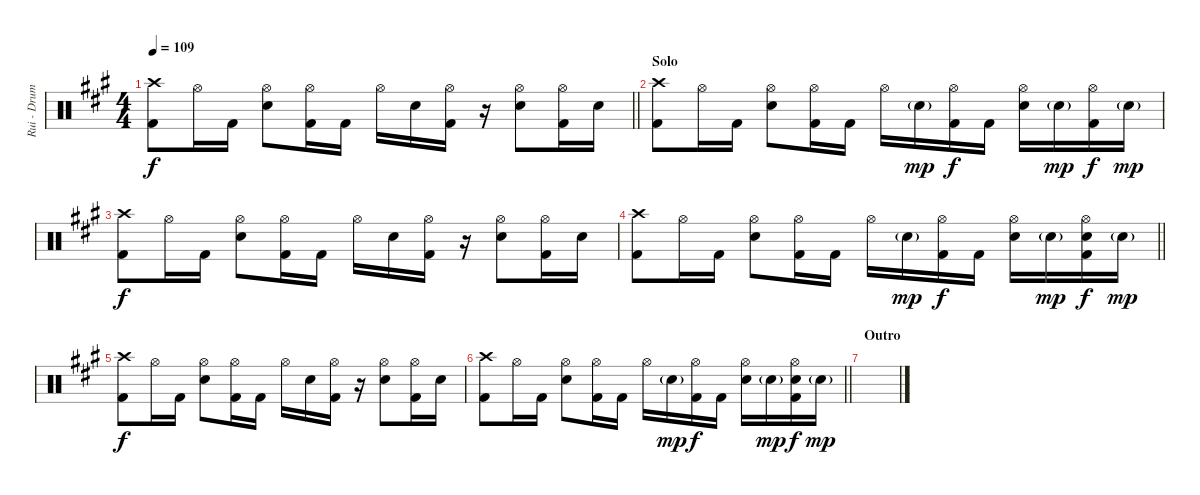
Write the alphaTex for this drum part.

\track ("Rui - Drums" "Rui - Drum") {instrument percussion}
\staff {score}
\articulation defaults
\ts (4 4)
\tempo 109
\clef neutral
\barLineRight lightlight
\ks f#minor
("Crash high (hit)" "Kick (hit) 2").8{dy f} "Hi-Hat (open)".16 "Kick (hit) 2".16 ("Hi-Hat (open)" "Electric Snare (hit)").8 ("Hi-Hat (open)" "Kick (hit) 2").16 "Kick (hit) 2".16 "Hi-Hat (open)".16 "Electric Snare (hit)".16 ("Hi-Hat (open)" "Kick (hit) 2").16 r.16 ("Hi-Hat (open)" "Electric Snare (hit)").8 ("Hi-Hat (open)" "Kick (hit) 2").16 "Electric Snare (hit)".16 |
\section ("" "Solo")
("Crash high (hit)" "Kick (hit) 2").8 "Hi-Hat (open)".16 "Kick (hit) 2".16 ("Hi-Hat (open)" "Electric Snare (hit)").8 ("Hi-Hat (open)" "Kick (hit) 2").16 "Kick (hit) 2".16 "Hi-Hat (open)".16 "Electric Snare (hit)"{g}.16{dy mp} ("Hi-Hat (open)" "Kick (hit) 2").16{dy f} "Kick (hit) 2".16 ("Hi-Hat (open)" "Electric Snare (hit)").16 "Electric Snare (hit)"{g}.16{dy mp} ("Hi-Hat (open)" "Kick (hit) 2").16{dy f} "Electric Snare (hit)"{g}.16{dy mp} |
("Crash high (hit)" "Kick (hit) 2").8{dy f} "Hi-Hat (open)".16 "Kick (hit) 2".16 ("Hi-Hat (open)" "Electric Snare (hit)").8 ("Hi-Hat (open)" "Kick (hit) 2").16 "Kick (hit) 2".16 "Hi-Hat (open)".16 "Electric Snare (hit)".16 ("Hi-Hat (open)" "Kick (hit) 2").16 r.16 ("Hi-Hat (open)" "Electric Snare (hit)").8 ("Hi-Hat (open)" "Kick (hit) 2").16 "Electric Snare (hit)".16 |
\barLineRight lightlight
("Crash high (hit)" "Kick (hit) 2").8 "Hi-Hat (open)".16 "Kick (hit) 2".16 ("Hi-Hat (open)" "Electric Snare (hit)").8 ("Hi-Hat (open)" "Kick (hit) 2").16 "Kick (hit) 2".16 "Hi-Hat (open)".16 "Electric Snare (hit)"{g}.16{dy mp} ("Hi-Hat (open)" "Kick (hit) 2").16{dy f} "Kick (hit) 2".16 ("Hi-Hat (open)" "Electric Snare (hit)").16 "Electric Snare (hit)"{g}.16{dy mp} ("Hi-Hat (open)" "Electric Snare (hit)" "Kick (hit) 2").16{dy f} "Electric Snare (hit)"{g}.16{dy mp} |
("Crash high (hit)" "Kick (hit) 2").8{dy f} "Hi-Hat (open)".16 "Kick (hit) 2".16 ("Hi-Hat (open)" "Electric Snare (hit)").8 ("Hi-Hat (open)" "Kick (hit) 2").16 "Kick (hit) 2".16 "Hi-Hat (open)".16 "Electric Snare (hit)".16 ("Hi-Hat (open)" "Kick (hit) 2").16 r.16 ("Hi-Hat (open)" "Electric Snare (hit)").8 ("Hi-Hat (open)" "Kick (hit) 2").16 "Electric Snare (hit)".16 |
\barLineRight lightlight
("Crash high (hit)" "Kick (hit) 2").8 "Hi-Hat (open)".16 "Kick (hit) 2".16 ("Hi-Hat (open)" "Electric Snare (hit)").8 ("Hi-Hat (open)" "Kick (hit) 2").16 "Kick (hit) 2".16 "Hi-Hat (open)".16 "Electric Snare (hit)"{g}.16{dy mp} ("Hi-Hat (open)" "Kick (hit) 2").16{dy f} "Kick (hit) 2".16 ("Hi-Hat (open)" "Electric Snare (hit)").16 "Electric Snare (hit)"{g}.16{dy mp} ("Hi-Hat (open)" "Electric Snare (hit)" "Kick (hit) 2").16{dy f} "Electric Snare (hit)"{g}.16{dy mp} |
\section ("" "Outro")
